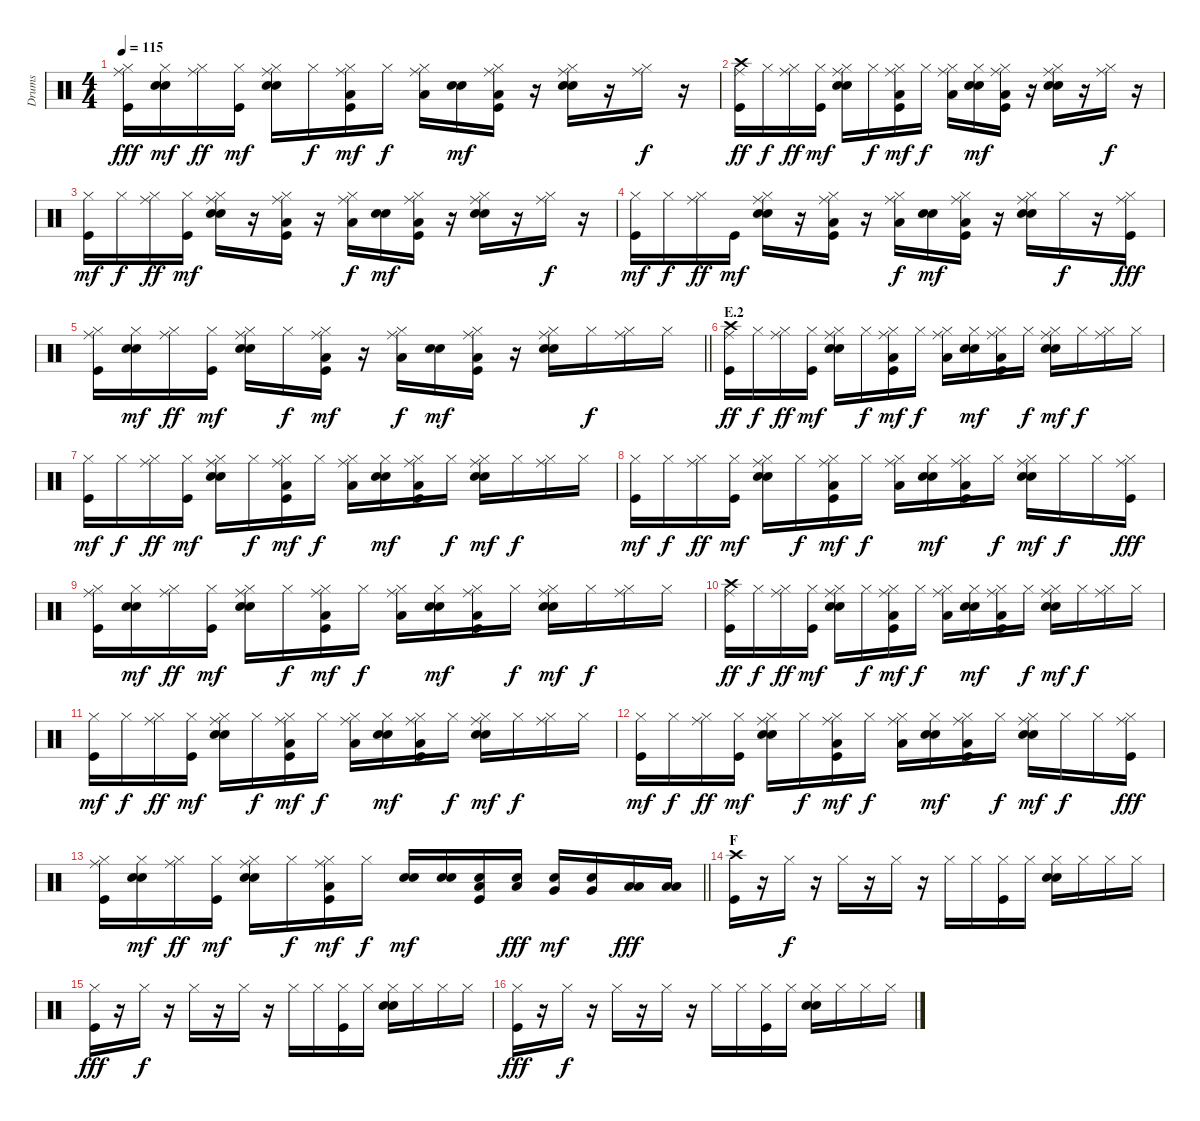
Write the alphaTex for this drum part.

\track ("Drums" "Drums") {instrument percussion}
\staff {score}
\articulation defaults
\ts (4 4)
\tempo 115
\clef neutral
\ks c
("Hi-Hat (closed)" "Ride (middle)" "Kick (hit)").16{dy fff} ("Hi-Hat (closed)" "Electric Snare (hit)" "Snare (hit) 2").16{dy mf} ("Hi-Hat (closed)" "Ride (middle)").16{dy ff} ("Hi-Hat (closed)" "Kick (hit)").16{dy mf} ("Hi-Hat (closed)" "Ride (middle)" "Electric Snare (hit)" "Snare (hit) 2").16 "Hi-Hat (closed)".16{dy f} ("Hi-Hat (closed)" "Ride (middle)" "Low Tom (hit)" "Kick (hit)").16{dy mf} "Hi-Hat (closed)".16{dy f} ("Hi-Hat (closed)" "Ride (middle)" "Low Tom (hit)").16 ("Electric Snare (hit)" "Snare (hit) 2").16{dy mf} ("Hi-Hat (closed)" "Ride (middle)" "Low Tom (hit)" "Kick (hit)").16 r.16 ("Hi-Hat (closed)" "Ride (middle)" "Electric Snare (hit)" "Snare (hit) 2").16 r.16 ("Hi-Hat (closed)" "Ride (middle)").16{dy f} r.16 |
("Crash high (hit)" "Ride (middle)" "Kick (hit)").16{dy ff} "Hi-Hat (closed)".16{dy f} ("Hi-Hat (closed)" "Ride (middle)").16{dy ff} ("Hi-Hat (closed)" "Kick (hit)").16{dy mf} ("Hi-Hat (closed)" "Ride (middle)" "Electric Snare (hit)" "Snare (hit) 2").16 "Hi-Hat (closed)".16{dy f} ("Hi-Hat (closed)" "Ride (middle)" "Low Tom (hit)" "Kick (hit)").16{dy mf} "Hi-Hat (closed)".16{dy f} ("Hi-Hat (closed)" "Ride (middle)" "Low Tom (hit)").16 ("Hi-Hat (closed)" "Electric Snare (hit)" "Snare (hit) 2").16{dy mf} ("Hi-Hat (closed)" "Ride (middle)" "Low Tom (hit)" "Kick (hit)").16 r.16 ("Hi-Hat (closed)" "Ride (middle)" "Electric Snare (hit)" "Snare (hit) 2").16 r.16 ("Hi-Hat (closed)" "Ride (middle)").16{dy f} r.16 |
("Hi-Hat (closed)" "Kick (hit)").16{dy mf} "Hi-Hat (closed)".16{dy f} ("Hi-Hat (closed)" "Ride (middle)").16{dy ff} ("Hi-Hat (closed)" "Kick (hit)").16{dy mf} ("Hi-Hat (closed)" "Ride (middle)" "Electric Snare (hit)" "Snare (hit) 2").16 r.16 ("Hi-Hat (closed)" "Ride (middle)" "Low Tom (hit)" "Kick (hit)").16 r.16 ("Hi-Hat (closed)" "Ride (middle)" "Low Tom (hit)").16{dy f} ("Electric Snare (hit)" "Snare (hit) 2").16{dy mf} ("Hi-Hat (closed)" "Ride (middle)" "Low Tom (hit)" "Kick (hit)").16 r.16 ("Hi-Hat (closed)" "Ride (middle)" "Electric Snare (hit)" "Snare (hit) 2").16 r.16 ("Hi-Hat (closed)" "Ride (middle)").16{dy f} r.16 |
("Hi-Hat (closed)" "Kick (hit)").16{dy mf} "Hi-Hat (closed)".16{dy f} ("Hi-Hat (closed)" "Ride (middle)").16{dy ff} "Kick (hit)".16{dy mf} ("Hi-Hat (closed)" "Ride (middle)" "Electric Snare (hit)" "Snare (hit) 2").16 r.16 ("Hi-Hat (closed)" "Ride (middle)" "Low Tom (hit)" "Kick (hit)").16 r.16 ("Hi-Hat (closed)" "Ride (middle)" "Low Tom (hit)").16{dy f} ("Electric Snare (hit)" "Snare (hit) 2").16{dy mf} ("Hi-Hat (closed)" "Ride (middle)" "Low Tom (hit)" "Kick (hit)").16 r.16 ("Hi-Hat (closed)" "Ride (middle)" "Electric Snare (hit)" "Snare (hit) 2").16 "Hi-Hat (closed)".16{dy f} r.16 ("Hi-Hat (closed)" "Ride (middle)" "Kick (hit)").16{dy fff} |
\barLineRight lightlight
("Hi-Hat (closed)" "Ride (middle)" "Kick (hit)").16 ("Hi-Hat (closed)" "Electric Snare (hit)" "Snare (hit) 2").16{dy mf} ("Hi-Hat (closed)" "Ride (middle)").16{dy ff} ("Hi-Hat (closed)" "Kick (hit)").16{dy mf} ("Hi-Hat (closed)" "Ride (middle)" "Electric Snare (hit)" "Snare (hit) 2").16 "Hi-Hat (closed)".16{dy f} ("Hi-Hat (closed)" "Ride (middle)" "Low Tom (hit)" "Kick (hit)").16{dy mf} r.16 ("Hi-Hat (closed)" "Ride (middle)" "Low Tom (hit)").16{dy f} ("Electric Snare (hit)" "Snare (hit) 2").16{dy mf} ("Hi-Hat (closed)" "Ride (middle)" "Low Tom (hit)" "Kick (hit)").16 r.16 ("Hi-Hat (closed)" "Ride (middle)" "Electric Snare (hit)" "Snare (hit) 2").16 "Hi-Hat (closed)".16{dy f} ("Hi-Hat (closed)" "Ride (middle)").16 "Hi-Hat (closed)".16 |
\section ("" "E.2")
("Crash high (hit)" "Ride (middle)" "Kick (hit)").16{dy ff} "Hi-Hat (closed)".16{dy f} ("Hi-Hat (closed)" "Ride (middle)").16{dy ff} ("Hi-Hat (closed)" "Kick (hit)").16{dy mf} ("Hi-Hat (closed)" "Ride (middle)" "Electric Snare (hit)" "Snare (hit) 2").16 "Hi-Hat (closed)".16{dy f} ("Hi-Hat (closed)" "Ride (middle)" "Low Tom (hit)" "Kick (hit)").16{dy mf} "Hi-Hat (closed)".16{dy f} ("Hi-Hat (closed)" "Ride (middle)" "Low Tom (hit)").16 ("Hi-Hat (closed)" "Electric Snare (hit)" "Snare (hit) 2").16{dy mf} ("Hi-Hat (closed)" "Ride (middle)" "Low Tom (hit)" "Kick (hit)").16 "Hi-Hat (closed)".16{dy f} ("Hi-Hat (closed)" "Ride (middle)" "Electric Snare (hit)" "Snare (hit) 2").16{dy mf} "Hi-Hat (closed)".16{dy f} ("Hi-Hat (closed)" "Ride (middle)").16 "Hi-Hat (closed)".16 |
("Hi-Hat (closed)" "Kick (hit)").16{dy mf} "Hi-Hat (closed)".16{dy f} ("Hi-Hat (closed)" "Ride (middle)").16{dy ff} ("Hi-Hat (closed)" "Kick (hit)").16{dy mf} ("Hi-Hat (closed)" "Ride (middle)" "Electric Snare (hit)" "Snare (hit) 2").16 "Hi-Hat (closed)".16{dy f} ("Hi-Hat (closed)" "Ride (middle)" "Low Tom (hit)" "Kick (hit)").16{dy mf} "Hi-Hat (closed)".16{dy f} ("Hi-Hat (closed)" "Ride (middle)" "Low Tom (hit)").16 ("Hi-Hat (closed)" "Electric Snare (hit)" "Snare (hit) 2").16{dy mf} ("Hi-Hat (closed)" "Ride (middle)" "Low Tom (hit)" "Kick (hit)").16 "Hi-Hat (closed)".16{dy f} ("Hi-Hat (closed)" "Ride (middle)" "Electric Snare (hit)" "Snare (hit) 2").16{dy mf} "Hi-Hat (closed)".16{dy f} ("Hi-Hat (closed)" "Ride (middle)").16 "Hi-Hat (closed)".16 |
("Hi-Hat (closed)" "Kick (hit)").16{dy mf} "Hi-Hat (closed)".16{dy f} ("Hi-Hat (closed)" "Ride (middle)").16{dy ff} ("Hi-Hat (closed)" "Kick (hit)").16{dy mf} ("Hi-Hat (closed)" "Ride (middle)" "Electric Snare (hit)" "Snare (hit) 2").16 "Hi-Hat (closed)".16{dy f} ("Hi-Hat (closed)" "Ride (middle)" "Low Tom (hit)" "Kick (hit)").16{dy mf} "Hi-Hat (closed)".16{dy f} ("Hi-Hat (closed)" "Ride (middle)" "Low Tom (hit)").16 ("Hi-Hat (closed)" "Electric Snare (hit)" "Snare (hit) 2").16{dy mf} ("Hi-Hat (closed)" "Ride (middle)" "Low Tom (hit)" "Kick (hit)").16 "Hi-Hat (closed)".16{dy f} ("Hi-Hat (closed)" "Ride (middle)" "Electric Snare (hit)" "Snare (hit) 2").16{dy mf} "Hi-Hat (closed)".16{dy f} "Hi-Hat (closed)".16 ("Hi-Hat (closed)" "Ride (middle)" "Kick (hit)").16{dy fff} |
("Hi-Hat (closed)" "Ride (middle)" "Kick (hit)").16 ("Hi-Hat (closed)" "Electric Snare (hit)" "Snare (hit) 2").16{dy mf} ("Hi-Hat (closed)" "Ride (middle)").16{dy ff} ("Hi-Hat (closed)" "Kick (hit)").16{dy mf} ("Hi-Hat (closed)" "Ride (middle)" "Electric Snare (hit)" "Snare (hit) 2").16 "Hi-Hat (closed)".16{dy f} ("Hi-Hat (closed)" "Ride (middle)" "Low Tom (hit)" "Kick (hit)").16{dy mf} "Hi-Hat (closed)".16{dy f} ("Hi-Hat (closed)" "Ride (middle)" "Low Tom (hit)").16 ("Hi-Hat (closed)" "Electric Snare (hit)" "Snare (hit) 2").16{dy mf} ("Hi-Hat (closed)" "Ride (middle)" "Low Tom (hit)" "Kick (hit)").16 "Hi-Hat (closed)".16{dy f} ("Hi-Hat (closed)" "Ride (middle)" "Electric Snare (hit)" "Snare (hit) 2").16{dy mf} "Hi-Hat (closed)".16{dy f} ("Hi-Hat (closed)" "Ride (middle)").16 "Hi-Hat (closed)".16 |
("Crash high (hit)" "Ride (middle)" "Kick (hit)").16{dy ff} "Hi-Hat (closed)".16{dy f} ("Hi-Hat (closed)" "Ride (middle)").16{dy ff} ("Hi-Hat (closed)" "Kick (hit)").16{dy mf} ("Hi-Hat (closed)" "Ride (middle)" "Electric Snare (hit)" "Snare (hit) 2").16 "Hi-Hat (closed)".16{dy f} ("Hi-Hat (closed)" "Ride (middle)" "Low Tom (hit)" "Kick (hit)").16{dy mf} "Hi-Hat (closed)".16{dy f} ("Hi-Hat (closed)" "Ride (middle)" "Low Tom (hit)").16 ("Hi-Hat (closed)" "Electric Snare (hit)" "Snare (hit) 2").16{dy mf} ("Hi-Hat (closed)" "Ride (middle)" "Low Tom (hit)" "Kick (hit)").16 "Hi-Hat (closed)".16{dy f} ("Hi-Hat (closed)" "Ride (middle)" "Electric Snare (hit)" "Snare (hit) 2").16{dy mf} "Hi-Hat (closed)".16{dy f} ("Hi-Hat (closed)" "Ride (middle)").16 "Hi-Hat (closed)".16 |
("Hi-Hat (closed)" "Kick (hit)").16{dy mf} "Hi-Hat (closed)".16{dy f} ("Hi-Hat (closed)" "Ride (middle)").16{dy ff} ("Hi-Hat (closed)" "Kick (hit)").16{dy mf} ("Hi-Hat (closed)" "Ride (middle)" "Electric Snare (hit)" "Snare (hit) 2").16 "Hi-Hat (closed)".16{dy f} ("Hi-Hat (closed)" "Ride (middle)" "Low Tom (hit)" "Kick (hit)").16{dy mf} "Hi-Hat (closed)".16{dy f} ("Hi-Hat (closed)" "Ride (middle)" "Low Tom (hit)").16 ("Hi-Hat (closed)" "Electric Snare (hit)" "Snare (hit) 2").16{dy mf} ("Hi-Hat (closed)" "Ride (middle)" "Low Tom (hit)" "Kick (hit)").16 "Hi-Hat (closed)".16{dy f} ("Hi-Hat (closed)" "Ride (middle)" "Electric Snare (hit)" "Snare (hit) 2").16{dy mf} "Hi-Hat (closed)".16{dy f} ("Hi-Hat (closed)" "Ride (middle)").16 "Hi-Hat (closed)".16 |
("Hi-Hat (closed)" "Kick (hit)").16{dy mf} "Hi-Hat (closed)".16{dy f} ("Hi-Hat (closed)" "Ride (middle)").16{dy ff} ("Hi-Hat (closed)" "Kick (hit)").16{dy mf} ("Hi-Hat (closed)" "Ride (middle)" "Electric Snare (hit)" "Snare (hit) 2").16 "Hi-Hat (closed)".16{dy f} ("Hi-Hat (closed)" "Ride (middle)" "Low Tom (hit)" "Kick (hit)").16{dy mf} "Hi-Hat (closed)".16{dy f} ("Hi-Hat (closed)" "Ride (middle)" "Low Tom (hit)").16 ("Hi-Hat (closed)" "Electric Snare (hit)" "Snare (hit) 2").16{dy mf} ("Hi-Hat (closed)" "Ride (middle)" "Low Tom (hit)" "Kick (hit)").16 "Hi-Hat (closed)".16{dy f} ("Hi-Hat (closed)" "Ride (middle)" "Electric Snare (hit)" "Snare (hit) 2").16{dy mf} "Hi-Hat (closed)".16{dy f} "Hi-Hat (closed)".16 ("Hi-Hat (closed)" "Ride (middle)" "Kick (hit)").16{dy fff} |
\barLineRight lightlight
("Hi-Hat (closed)" "Ride (middle)" "Kick (hit)").16 ("Hi-Hat (closed)" "Electric Snare (hit)" "Snare (hit) 2").16{dy mf} ("Hi-Hat (closed)" "Ride (middle)").16{dy ff} ("Hi-Hat (closed)" "Kick (hit)").16{dy mf} ("Hi-Hat (closed)" "Ride (middle)" "Electric Snare (hit)" "Snare (hit) 2").16 "Hi-Hat (closed)".16{dy f} ("Hi-Hat (closed)" "Ride (middle)" "Low Tom (hit)" "Kick (hit)").16{dy mf} "Hi-Hat (closed)".16{dy f} ("Electric Snare (hit)" "Snare (hit) 2").16{dy mf} ("Electric Snare (hit)" "Snare (hit) 2").16 ("Electric Snare (hit)" "Low Tom (hit)" "Kick (hit)").16 ("Electric Snare (hit)" "Low Tom (hit)").16{dy fff} ("Electric Snare (hit)" "Very Low Tom (hit)").16{dy mf} ("Electric Snare (hit)" "Very Low Tom (hit)").16 ("Low Tom (hit)" "Low Floor Tom (hit)").16{dy fff} ("Low Tom (hit)" "Low Floor Tom (hit)").16 |
\section ("" "F")
("Crash high (hit)" "Kick (hit)").16 r.16 "Hi-Hat (closed)".16{dy f} r.16 "Hi-Hat (closed)".16 r.16 "Hi-Hat (closed)".16 r.16 "Hi-Hat (closed)".16 "Hi-Hat (closed)".16 ("Hi-Hat (closed)" "Kick (hit)").16 "Hi-Hat (closed)".16 ("Hi-Hat (closed)" "Snare (hit) 2" "Electric Snare (hit)").16 "Hi-Hat (closed)".16 "Hi-Hat (closed)".16 "Hi-Hat (closed)".16 |
("Hi-Hat (closed)" "Kick (hit)").16{dy fff} r.16 "Hi-Hat (closed)".16{dy f} r.16 "Hi-Hat (closed)".16 r.16 "Hi-Hat (closed)".16 r.16 "Hi-Hat (closed)".16 "Hi-Hat (closed)".16 ("Hi-Hat (closed)" "Kick (hit)").16 "Hi-Hat (closed)".16 ("Hi-Hat (closed)" "Snare (hit) 2" "Electric Snare (hit)").16 "Hi-Hat (closed)".16 "Hi-Hat (closed)".16 "Hi-Hat (closed)".16 |
("Hi-Hat (closed)" "Kick (hit)").16{dy fff} r.16 "Hi-Hat (closed)".16{dy f} r.16 "Hi-Hat (closed)".16 r.16 "Hi-Hat (closed)".16 r.16 "Hi-Hat (closed)".16 "Hi-Hat (closed)".16 ("Hi-Hat (closed)" "Kick (hit)").16 "Hi-Hat (closed)".16 ("Hi-Hat (closed)" "Snare (hit) 2" "Electric Snare (hit)").16 "Hi-Hat (closed)".16 "Hi-Hat (closed)".16 "Hi-Hat (closed)".16
